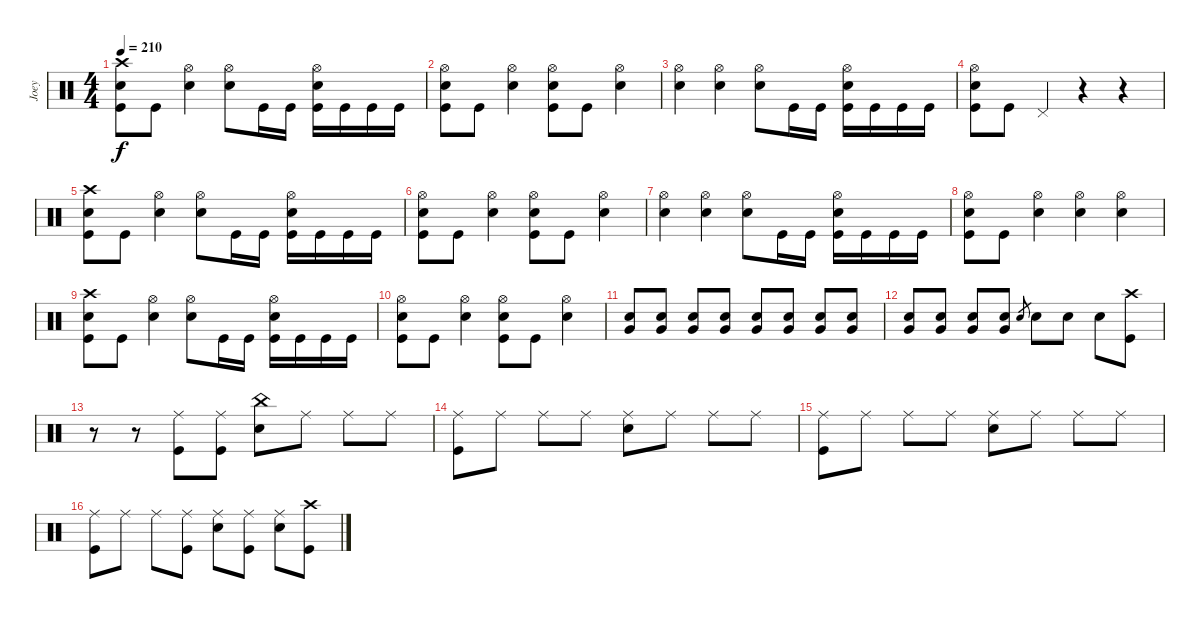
\track ("Joey" "Joey") {instrument percussion}
\staff {score}
\articulation defaults
\ts (4 4)
\tempo 210
\clef neutral
\ks c
("Crash high (hit)" "Kick (hit)" "Snare (hit) 2").8{dy f} "Kick (hit)".8 ("Hi-Hat (open)" "Snare (hit) 2").4 ("Hi-Hat (open)" "Snare (hit) 2").8 "Kick (hit)".16 "Kick (hit)".16 ("Kick (hit)" "Hi-Hat (open)" "Snare (hit) 2").16 "Kick (hit)".16 "Kick (hit)".16 "Kick (hit)".16 |
("Kick (hit)" "Hi-Hat (open)" "Snare (hit) 2").8 "Kick (hit)".8 ("Hi-Hat (open)" "Snare (hit) 2").4 ("Hi-Hat (open)" "Snare (hit) 2" "Kick (hit)").8 "Kick (hit)".8 ("Hi-Hat (open)" "Snare (hit) 2").4 |
("Hi-Hat (open)" "Snare (hit) 2").4 ("Snare (hit) 2" "Hi-Hat (open)").4 ("Snare (hit) 2" "Hi-Hat (open)").8 "Kick (hit)".16 "Kick (hit)".16 ("Kick (hit)" "Hi-Hat (open)" "Snare (hit) 2").16 "Kick (hit)".16 "Kick (hit)".16 "Kick (hit)".16 |
("Kick (hit)" "Hi-Hat (open)" "Snare (hit) 2").8 "Kick (hit)".8 "Pedal Hi-Hat (hit)".4 r.4 r.4 |
("Crash high (hit)" "Kick (hit)" "Snare (hit) 2").8 "Kick (hit)".8 ("Hi-Hat (open)" "Snare (hit) 2").4 ("Hi-Hat (open)" "Snare (hit) 2").8 "Kick (hit)".16 "Kick (hit)".16 ("Kick (hit)" "Hi-Hat (open)" "Snare (hit) 2").16 "Kick (hit)".16 "Kick (hit)".16 "Kick (hit)".16 |
("Kick (hit)" "Hi-Hat (open)" "Snare (hit) 2").8 "Kick (hit)".8 ("Hi-Hat (open)" "Snare (hit) 2").4 ("Hi-Hat (open)" "Snare (hit) 2" "Kick (hit)").8 "Kick (hit)".8 ("Hi-Hat (open)" "Snare (hit) 2").4 |
("Hi-Hat (open)" "Snare (hit) 2").4 ("Snare (hit) 2" "Hi-Hat (open)").4 ("Snare (hit) 2" "Hi-Hat (open)").8 "Kick (hit)".16 "Kick (hit)".16 ("Kick (hit)" "Hi-Hat (open)" "Snare (hit) 2").16 "Kick (hit)".16 "Kick (hit)".16 "Kick (hit)".16 |
("Kick (hit)" "Hi-Hat (open)" "Snare (hit) 2").8 "Kick (hit)".8 ("Hi-Hat (open)" "Snare (hit) 2").4 ("Snare (hit) 2" "Hi-Hat (open)").4 ("Snare (hit) 2" "Hi-Hat (open)").4 |
("Crash high (hit)" "Kick (hit)" "Snare (hit) 2").8 "Kick (hit)".8 ("Hi-Hat (open)" "Snare (hit) 2").4 ("Hi-Hat (open)" "Snare (hit) 2").8 "Kick (hit)".16 "Kick (hit)".16 ("Kick (hit)" "Hi-Hat (open)" "Snare (hit) 2").16 "Kick (hit)".16 "Kick (hit)".16 "Kick (hit)".16 |
("Kick (hit)" "Hi-Hat (open)" "Snare (hit) 2").8 "Kick (hit)".8 ("Hi-Hat (open)" "Snare (hit) 2").4 ("Hi-Hat (open)" "Snare (hit) 2" "Kick (hit)").8 "Kick (hit)".8 ("Hi-Hat (open)" "Snare (hit) 2").4 |
("Very Low Tom (hit)" "Snare (hit) 2").8 ("Very Low Tom (hit)" "Snare (hit) 2").8 ("Very Low Tom (hit)" "Snare (hit) 2").8 ("Very Low Tom (hit)" "Snare (hit) 2").8 ("Very Low Tom (hit)" "Snare (hit) 2").8 ("Very Low Tom (hit)" "Snare (hit) 2").8 ("Snare (hit) 2" "Very Low Tom (hit)").8 ("Very Low Tom (hit)" "Snare (hit) 2").8 |
("Very Low Tom (hit)" "Snare (hit) 2").8 ("Very Low Tom (hit)" "Snare (hit) 2").8 ("Very Low Tom (hit)" "Snare (hit) 2").8 ("Very Low Tom (hit)" "Snare (hit) 2").8 "Snare (hit) 2".8{gr} "Snare (hit) 2".8 "Snare (hit) 2".8 "Snare (hit) 2".8 ("Crash high (hit)" "Kick (hit)").8 |
r.8 r.8 ("Kick (hit)" "Ride (middle)").8 ("Kick (hit)" "Ride (middle)").8 ("Snare (hit) 2" "China (hit)").8 "Ride (middle)".8 "Ride (middle)".8 "Ride (middle)".8 |
("Ride (middle)" "Kick (hit)").8 "Ride (middle)".8 "Ride (middle)".8 "Ride (middle)".8 ("Ride (middle)" "Snare (hit) 2").8 "Ride (middle)".8 "Ride (middle)".8 "Ride (middle)".8 |
("Ride (middle)" "Kick (hit)").8 "Ride (middle)".8 "Ride (middle)".8 "Ride (middle)".8 ("Ride (middle)" "Snare (hit) 2").8 "Ride (middle)".8 "Ride (middle)".8 "Ride (middle)".8 |
("Ride (middle)" "Kick (hit)").8 "Ride (middle)".8 "Ride (middle)".8 ("Ride (middle)" "Kick (hit)").8 ("Ride (middle)" "Snare (hit) 2").8 ("Ride (middle)" "Kick (hit)").8 ("Ride (middle)" "Snare (hit) 2").8 ("Crash high (hit)" "Kick (hit)").8
